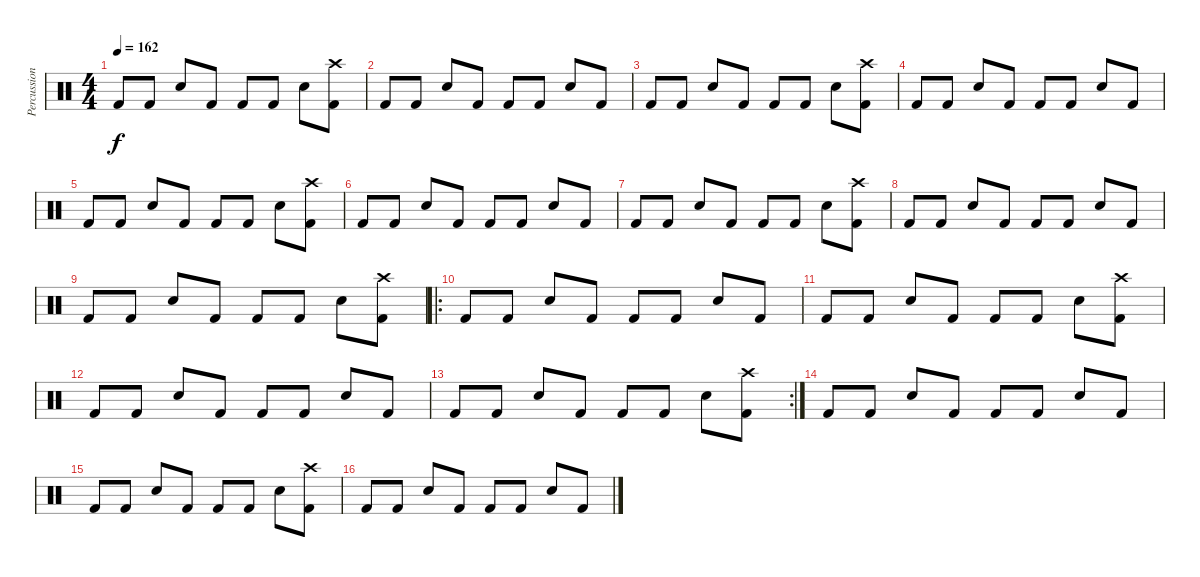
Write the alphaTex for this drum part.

\track ("Percussion" "Percussion") {instrument percussion}
\staff {score}
\articulation defaults
\ts (4 4)
\tempo 162
\clef neutral
\ks c "Kick (hit) 2".8{dy f} "Kick (hit) 2".8 "Snare (hit) 2".8 "Kick (hit) 2".8 "Kick (hit) 2".8 "Kick (hit) 2".8 "Snare (hit) 2".8
("Crash high (hit)" "Kick (hit) 2").8 |
"Kick (hit) 2".8 "Kick (hit) 2".8 "Snare (hit) 2".8 "Kick (hit) 2".8 "Kick (hit) 2".8 "Kick (hit) 2".8 "Snare (hit) 2".8 "Kick (hit) 2".8 |
"Kick (hit) 2".8 "Kick (hit) 2".8 "Snare (hit) 2".8 "Kick (hit) 2".8 "Kick (hit) 2".8 "Kick (hit) 2".8 "Snare (hit) 2".8 ("Crash high (hit)" "Kick (hit) 2").8 |
"Kick (hit) 2".8 "Kick (hit) 2".8 "Snare (hit) 2".8 "Kick (hit) 2".8 "Kick (hit) 2".8 "Kick (hit) 2".8 "Snare (hit) 2".8 "Kick (hit) 2".8 |
"Kick (hit) 2".8 "Kick (hit) 2".8 "Snare (hit) 2".8 "Kick (hit) 2".8 "Kick (hit) 2".8 "Kick (hit) 2".8 "Snare (hit) 2".8 ("Crash high (hit)" "Kick (hit) 2").8 |
"Kick (hit) 2".8 "Kick (hit) 2".8 "Snare (hit) 2".8 "Kick (hit) 2".8 "Kick (hit) 2".8 "Kick (hit) 2".8 "Snare (hit) 2".8 "Kick (hit) 2".8 |
"Kick (hit) 2".8 "Kick (hit) 2".8 "Snare (hit) 2".8 "Kick (hit) 2".8 "Kick (hit) 2".8 "Kick (hit) 2".8 "Snare (hit) 2".8 ("Crash high (hit)" "Kick (hit) 2").8 |
"Kick (hit) 2".8 "Kick (hit) 2".8 "Snare (hit) 2".8 "Kick (hit) 2".8 "Kick (hit) 2".8 "Kick (hit) 2".8 "Snare (hit) 2".8 "Kick (hit) 2".8 |
"Kick (hit) 2".8 "Kick (hit) 2".8 "Snare (hit) 2".8 "Kick (hit) 2".8 "Kick (hit) 2".8 "Kick (hit) 2".8 "Snare (hit) 2".8 ("Crash high (hit)" "Kick (hit) 2").8 |
\ro "Kick (hit) 2".8 "Kick (hit) 2".8 "Snare (hit) 2".8 "Kick (hit) 2".8 "Kick (hit) 2".8 "Kick (hit) 2".8 "Snare (hit) 2".8 "Kick (hit) 2".8
|
"Kick (hit) 2".8 "Kick (hit) 2".8 "Snare (hit) 2".8 "Kick (hit) 2".8 "Kick (hit) 2".8 "Kick (hit) 2".8 "Snare (hit) 2".8 ("Crash high (hit)" "Kick (hit) 2").8 |
"Kick (hit) 2".8 "Kick (hit) 2".8 "Snare (hit) 2".8 "Kick (hit) 2".8 "Kick (hit) 2".8 "Kick (hit) 2".8 "Snare (hit) 2".8 "Kick (hit) 2".8 |
\rc 2 "Kick (hit) 2".8 "Kick (hit) 2".8 "Snare (hit) 2".8 "Kick (hit) 2".8 "Kick (hit) 2".8 "Kick (hit) 2".8 "Snare (hit) 2".8
("Crash high (hit)" "Kick (hit) 2").8 |
"Kick (hit) 2".8 "Kick (hit) 2".8 "Snare (hit) 2".8 "Kick (hit) 2".8 "Kick (hit) 2".8 "Kick (hit) 2".8 "Snare (hit) 2".8 "Kick (hit) 2".8 |
"Kick (hit) 2".8 "Kick (hit) 2".8 "Snare (hit) 2".8 "Kick (hit) 2".8 "Kick (hit) 2".8 "Kick (hit) 2".8 "Snare (hit) 2".8 ("Crash high (hit)" "Kick (hit) 2").8 |
"Kick (hit) 2".8 "Kick (hit) 2".8 "Snare (hit) 2".8 "Kick (hit) 2".8 "Kick (hit) 2".8 "Kick (hit) 2".8 "Snare (hit) 2".8 "Kick (hit) 2".8
